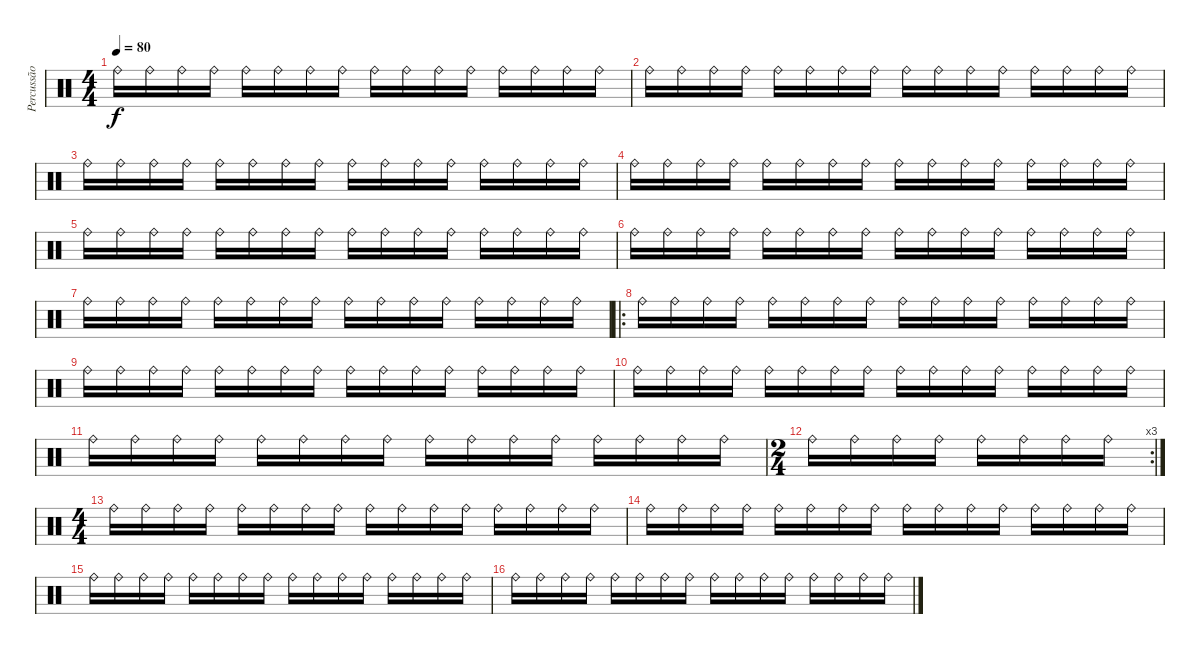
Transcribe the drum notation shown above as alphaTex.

\track ("Percussão" "Percussão") {instrument percussion}
\staff {score}
\articulation defaults
\ts (4 4)
\tempo 80
\clef neutral
\ks c "Ride (bell)".16{dy f} "Ride (bell)".16 "Ride (bell)".16 "Ride (bell)".16 "Ride (bell)".16 "Ride (bell)".16 "Ride (bell)".16 "Ride (bell)".16 "Ride (bell)".16 "Ride (bell)".16 "Ride (bell)".16 "Ride (bell)".16 "Ride (bell)".16 "Ride (bell)".16 "Ride (bell)".16 "Ride (bell)".16
|
"Ride (bell)".16 "Ride (bell)".16 "Ride (bell)".16 "Ride (bell)".16 "Ride (bell)".16 "Ride (bell)".16 "Ride (bell)".16 "Ride (bell)".16 "Ride (bell)".16 "Ride (bell)".16 "Ride (bell)".16 "Ride (bell)".16 "Ride (bell)".16 "Ride (bell)".16 "Ride (bell)".16 "Ride (bell)".16 |
"Ride (bell)".16 "Ride (bell)".16 "Ride (bell)".16 "Ride (bell)".16 "Ride (bell)".16 "Ride (bell)".16 "Ride (bell)".16 "Ride (bell)".16 "Ride (bell)".16 "Ride (bell)".16 "Ride (bell)".16 "Ride (bell)".16 "Ride (bell)".16 "Ride (bell)".16 "Ride (bell)".16 "Ride (bell)".16 |
"Ride (bell)".16 "Ride (bell)".16 "Ride (bell)".16 "Ride (bell)".16 "Ride (bell)".16 "Ride (bell)".16 "Ride (bell)".16 "Ride (bell)".16 "Ride (bell)".16 "Ride (bell)".16 "Ride (bell)".16 "Ride (bell)".16 "Ride (bell)".16 "Ride (bell)".16 "Ride (bell)".16 "Ride (bell)".16 |
"Ride (bell)".16 "Ride (bell)".16 "Ride (bell)".16 "Ride (bell)".16 "Ride (bell)".16 "Ride (bell)".16 "Ride (bell)".16 "Ride (bell)".16 "Ride (bell)".16 "Ride (bell)".16 "Ride (bell)".16 "Ride (bell)".16 "Ride (bell)".16 "Ride (bell)".16 "Ride (bell)".16 "Ride (bell)".16 |
"Ride (bell)".16 "Ride (bell)".16 "Ride (bell)".16 "Ride (bell)".16 "Ride (bell)".16 "Ride (bell)".16 "Ride (bell)".16 "Ride (bell)".16 "Ride (bell)".16 "Ride (bell)".16 "Ride (bell)".16 "Ride (bell)".16 "Ride (bell)".16 "Ride (bell)".16 "Ride (bell)".16 "Ride (bell)".16 |
"Ride (bell)".16 "Ride (bell)".16 "Ride (bell)".16 "Ride (bell)".16 "Ride (bell)".16 "Ride (bell)".16 "Ride (bell)".16 "Ride (bell)".16 "Ride (bell)".16 "Ride (bell)".16 "Ride (bell)".16 "Ride (bell)".16 "Ride (bell)".16 "Ride (bell)".16 "Ride (bell)".16 "Ride (bell)".16 |
\ro "Ride (bell)".16 "Ride (bell)".16 "Ride (bell)".16 "Ride (bell)".16 "Ride (bell)".16 "Ride (bell)".16 "Ride (bell)".16 "Ride (bell)".16 "Ride (bell)".16 "Ride (bell)".16 "Ride (bell)".16 "Ride (bell)".16 "Ride (bell)".16 "Ride (bell)".16 "Ride (bell)".16 "Ride (bell)".16
|
"Ride (bell)".16 "Ride (bell)".16 "Ride (bell)".16 "Ride (bell)".16 "Ride (bell)".16 "Ride (bell)".16 "Ride (bell)".16 "Ride (bell)".16 "Ride (bell)".16 "Ride (bell)".16 "Ride (bell)".16 "Ride (bell)".16 "Ride (bell)".16 "Ride (bell)".16 "Ride (bell)".16 "Ride (bell)".16 |
"Ride (bell)".16 "Ride (bell)".16 "Ride (bell)".16 "Ride (bell)".16 "Ride (bell)".16 "Ride (bell)".16 "Ride (bell)".16 "Ride (bell)".16 "Ride (bell)".16 "Ride (bell)".16 "Ride (bell)".16 "Ride (bell)".16 "Ride (bell)".16 "Ride (bell)".16 "Ride (bell)".16 "Ride (bell)".16 |
"Ride (bell)".16 "Ride (bell)".16 "Ride (bell)".16 "Ride (bell)".16 "Ride (bell)".16 "Ride (bell)".16 "Ride (bell)".16 "Ride (bell)".16 "Ride (bell)".16 "Ride (bell)".16 "Ride (bell)".16 "Ride (bell)".16 "Ride (bell)".16 "Ride (bell)".16 "Ride (bell)".16 "Ride (bell)".16 |
\rc 3
\ts (2 4)
"Ride (bell)".16 "Ride (bell)".16 "Ride (bell)".16 "Ride (bell)".16 "Ride (bell)".16 "Ride (bell)".16 "Ride (bell)".16 "Ride (bell)".16 |
\ts (4 4)
"Ride (bell)".16 "Ride (bell)".16 "Ride (bell)".16 "Ride (bell)".16 "Ride (bell)".16 "Ride (bell)".16 "Ride (bell)".16 "Ride (bell)".16 "Ride (bell)".16 "Ride (bell)".16 "Ride (bell)".16 "Ride (bell)".16 "Ride (bell)".16 "Ride (bell)".16 "Ride (bell)".16 "Ride (bell)".16 |
"Ride (bell)".16 "Ride (bell)".16 "Ride (bell)".16 "Ride (bell)".16 "Ride (bell)".16 "Ride (bell)".16 "Ride (bell)".16 "Ride (bell)".16 "Ride (bell)".16 "Ride (bell)".16 "Ride (bell)".16 "Ride (bell)".16 "Ride (bell)".16 "Ride (bell)".16 "Ride (bell)".16 "Ride (bell)".16 |
"Ride (bell)".16 "Ride (bell)".16 "Ride (bell)".16 "Ride (bell)".16 "Ride (bell)".16 "Ride (bell)".16 "Ride (bell)".16 "Ride (bell)".16 "Ride (bell)".16 "Ride (bell)".16 "Ride (bell)".16 "Ride (bell)".16 "Ride (bell)".16 "Ride (bell)".16 "Ride (bell)".16 "Ride (bell)".16 |
"Ride (bell)".16 "Ride (bell)".16 "Ride (bell)".16 "Ride (bell)".16 "Ride (bell)".16 "Ride (bell)".16 "Ride (bell)".16 "Ride (bell)".16 "Ride (bell)".16 "Ride (bell)".16 "Ride (bell)".16 "Ride (bell)".16 "Ride (bell)".16 "Ride (bell)".16 "Ride (bell)".16 "Ride (bell)".16
